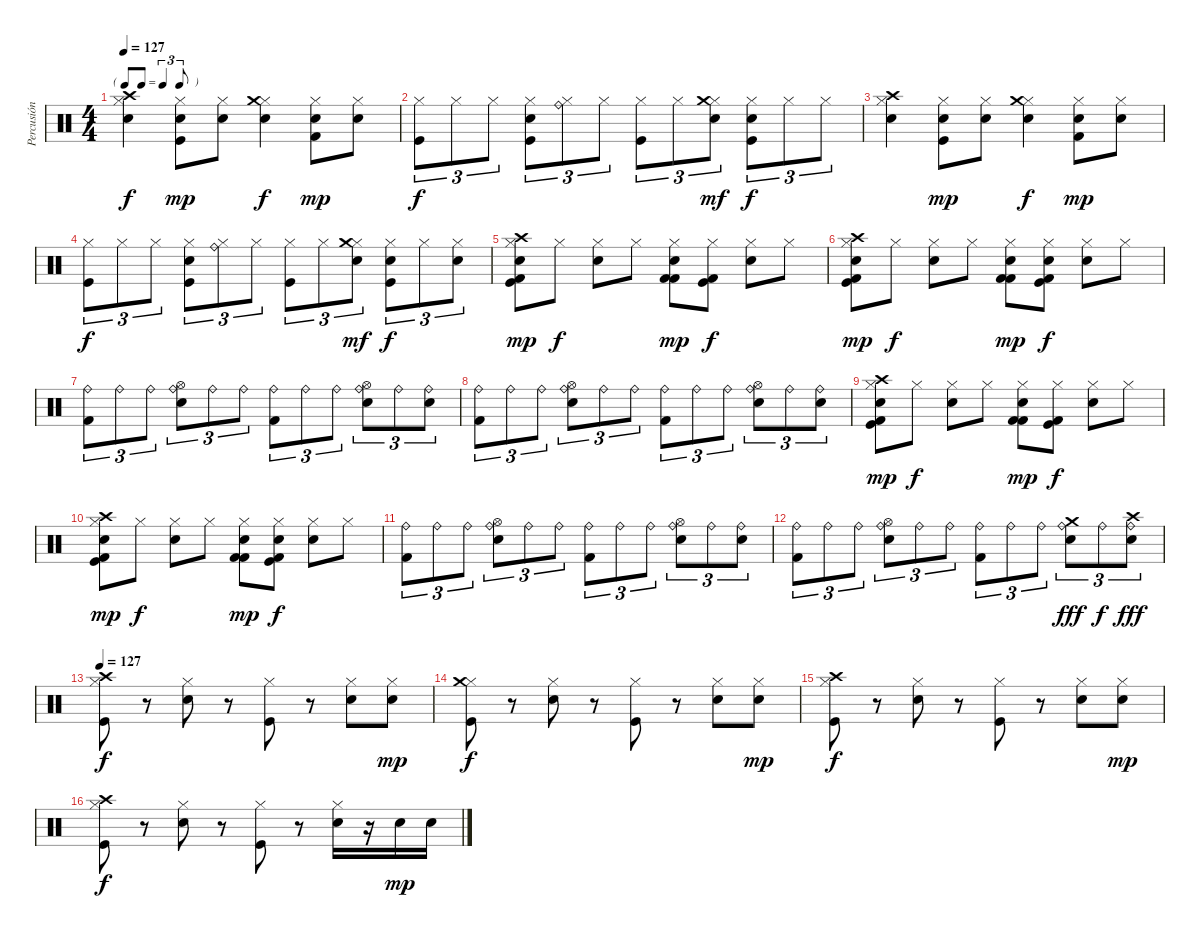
\track ("Percusión" "Percusión") {instrument percussion}
\staff {score}
\articulation defaults
\ts (4 4)
\tf triplet8th
\tempo 127
\clef neutral
\ks c
("Hi-Hat (closed)" "Crash high (hit)" "Snare (hit) 2").4{dy f} ("Hi-Hat (closed)" "Snare (hit) 2" "Kick (hit)").8{dy mp} ("Hi-Hat (closed)" "Snare (hit) 2").8 ("Hi-Hat (closed)" "Crash medium (hit)" "Snare (hit) 2").4{dy f} ("Hi-Hat (closed)" "Snare (hit) 2" "Kick (hit) 2").8{dy mp} ("Hi-Hat (closed)" "Snare (hit) 2").8 |
("Hi-Hat (closed)" "Kick (hit)").8{tu (3 2) dy f} "Hi-Hat (closed)".8{tu (3 2)} "Hi-Hat (closed)".8{tu (3 2)} ("Hi-Hat (closed)" "Snare (hit) 2" "Kick (hit)").8{tu (3 2)} ("Hi-Hat (closed)" "Ride (bell)").8{tu (3 2)} "Hi-Hat (closed)".8{tu (3 2)} ("Hi-Hat (closed)" "Kick (hit)").8{tu (3 2)} "Hi-Hat (closed)".8{tu (3 2)} ("Hi-Hat (closed)" "Crash medium (hit)" "Snare (hit) 2").8{tu (3 2) dy mf} ("Hi-Hat (closed)" "Snare (hit) 2" "Kick (hit)").8{tu (3 2) dy f} "Hi-Hat (closed)".8{tu (3 2)} "Hi-Hat (closed)".8{tu (3 2)} |
("Hi-Hat (closed)" "Crash high (hit)" "Snare (hit) 2").4 ("Hi-Hat (closed)" "Snare (hit) 2" "Kick (hit)").8{dy mp} ("Hi-Hat (closed)" "Snare (hit) 2").8 ("Hi-Hat (closed)" "Crash medium (hit)" "Snare (hit) 2").4{dy f} ("Hi-Hat (closed)" "Snare (hit) 2" "Kick (hit) 2").8{dy mp} ("Hi-Hat (closed)" "Snare (hit) 2").8 |
("Hi-Hat (closed)" "Kick (hit)").8{tu (3 2) dy f} "Hi-Hat (closed)".8{tu (3 2)} "Hi-Hat (closed)".8{tu (3 2)} ("Hi-Hat (closed)" "Snare (hit) 2" "Kick (hit)").8{tu (3 2)} ("Hi-Hat (closed)" "Ride (bell)").8{tu (3 2)} "Hi-Hat (closed)".8{tu (3 2)} ("Hi-Hat (closed)" "Kick (hit)").8{tu (3 2)} "Hi-Hat (closed)".8{tu (3 2)} ("Hi-Hat (closed)" "Crash medium (hit)" "Snare (hit) 2").8{tu (3 2) dy mf} ("Hi-Hat (closed)" "Snare (hit) 2" "Kick (hit)").8{tu (3 2) dy f} "Hi-Hat (closed)".8{tu (3 2)} ("Hi-Hat (closed)" "Snare (hit) 2").8{tu (3 2)} |
("Hi-Hat (closed)" "Crash high (hit)" "Snare (hit) 2" "Kick (hit) 2" "Kick (hit)").8{dy mp} "Hi-Hat (closed)".8{dy f} ("Hi-Hat (closed)" "Snare (hit) 2").8 "Hi-Hat (closed)".8 ("Hi-Hat (closed)" "Snare (hit) 2" "Kick (hit) 2" "Kick (hit) 2").8{dy mp} ("Hi-Hat (closed)" "Kick (hit) 2" "Kick (hit)").8{dy f} ("Hi-Hat (closed)" "Snare (hit) 2").8 "Hi-Hat (closed)".8 |
("Hi-Hat (closed)" "Crash high (hit)" "Snare (hit) 2" "Kick (hit) 2" "Kick (hit)").8{dy mp} "Hi-Hat (closed)".8{dy f} ("Hi-Hat (closed)" "Snare (hit) 2").8 "Hi-Hat (closed)".8 ("Hi-Hat (closed)" "Snare (hit) 2" "Kick (hit) 2" "Kick (hit) 2").8{dy mp} ("Hi-Hat (closed)" "Snare (hit) 2" "Kick (hit) 2" "Kick (hit)").8{dy f} ("Hi-Hat (closed)" "Snare (hit) 2").8 "Hi-Hat (closed)".8 |
("Ride (bell)" "Kick (hit) 2").8{tu (3 2)} "Ride (bell)".8{tu (3 2)} "Ride (bell)".8{tu (3 2)} ("Ride (bell)" "Hi-Hat (open)" "Snare (hit) 2").8{tu (3 2)} "Ride (bell)".8{tu (3 2)} "Ride (bell)".8{tu (3 2)} ("Ride (bell)" "Kick (hit) 2").8{tu (3 2)} "Ride (bell)".8{tu (3 2)} "Ride (bell)".8{tu (3 2)} ("Ride (bell)" "Hi-Hat (open)" "Snare (hit) 2").8{tu (3 2)} "Ride (bell)".8{tu (3 2)} ("Ride (bell)" "Snare (hit) 2").8{tu (3 2)} |
("Ride (bell)" "Kick (hit) 2").8{tu (3 2)} "Ride (bell)".8{tu (3 2)} "Ride (bell)".8{tu (3 2)} ("Ride (bell)" "Hi-Hat (open)" "Snare (hit) 2").8{tu (3 2)} "Ride (bell)".8{tu (3 2)} "Ride (bell)".8{tu (3 2)} ("Ride (bell)" "Kick (hit) 2").8{tu (3 2)} "Ride (bell)".8{tu (3 2)} "Ride (bell)".8{tu (3 2)} ("Ride (bell)" "Hi-Hat (open)" "Snare (hit) 2").8{tu (3 2)} "Ride (bell)".8{tu (3 2)} ("Ride (bell)" "Snare (hit) 2").8{tu (3 2)} |
("Hi-Hat (closed)" "Crash high (hit)" "Snare (hit) 2" "Kick (hit) 2" "Kick (hit)").8{dy mp} "Hi-Hat (closed)".8{dy f} ("Hi-Hat (closed)" "Snare (hit) 2").8 "Hi-Hat (closed)".8 ("Hi-Hat (closed)" "Snare (hit) 2" "Kick (hit) 2" "Kick (hit) 2").8{dy mp} ("Hi-Hat (closed)" "Kick (hit) 2" "Kick (hit)").8{dy f} ("Hi-Hat (closed)" "Snare (hit) 2").8 "Hi-Hat (closed)".8 |
("Hi-Hat (closed)" "Crash high (hit)" "Snare (hit) 2" "Kick (hit) 2" "Kick (hit)").8{dy mp} "Hi-Hat (closed)".8{dy f} ("Hi-Hat (closed)" "Snare (hit) 2").8 "Hi-Hat (closed)".8 ("Hi-Hat (closed)" "Snare (hit) 2" "Kick (hit) 2" "Kick (hit) 2").8{dy mp} ("Hi-Hat (closed)" "Snare (hit) 2" "Kick (hit) 2" "Kick (hit)").8{dy f} ("Hi-Hat (closed)" "Snare (hit) 2").8 "Hi-Hat (closed)".8 |
("Ride (bell)" "Kick (hit) 2").8{tu (3 2)} "Ride (bell)".8{tu (3 2)} "Ride (bell)".8{tu (3 2)} ("Ride (bell)" "Hi-Hat (open)" "Snare (hit) 2").8{tu (3 2)} "Ride (bell)".8{tu (3 2)} "Ride (bell)".8{tu (3 2)} ("Ride (bell)" "Kick (hit) 2").8{tu (3 2)} "Ride (bell)".8{tu (3 2)} "Ride (bell)".8{tu (3 2)} ("Ride (bell)" "Hi-Hat (open)" "Snare (hit) 2").8{tu (3 2)} "Ride (bell)".8{tu (3 2)} ("Ride (bell)" "Snare (hit) 2").8{tu (3 2)} |
("Ride (bell)" "Kick (hit) 2").8{tu (3 2)} "Ride (bell)".8{tu (3 2)} "Ride (bell)".8{tu (3 2)} ("Ride (bell)" "Hi-Hat (open)" "Snare (hit) 2").8{tu (3 2)} "Ride (bell)".8{tu (3 2)} "Ride (bell)".8{tu (3 2)} ("Ride (bell)" "Kick (hit) 2").8{tu (3 2)} "Ride (bell)".8{tu (3 2)} "Ride (bell)".8{tu (3 2)} ("Ride (bell)" "Crash medium (hit)" "Snare (hit) 2").8{tu (3 2) dy fff} "Ride (bell)".8{tu (3 2) dy f} ("Ride (bell)" "Crash high (hit)" "Snare (hit) 2").8{tu (3 2) dy fff} |
\tempo 127
("Hi-Hat (closed)" "Crash high (hit)" "Kick (hit)").8{dy f} r.8 ("Hi-Hat (closed)" "Snare (hit) 2").8 r.8 ("Hi-Hat (closed)" "Kick (hit)").8 r.8 ("Hi-Hat (closed)" "Snare (hit) 2").8 ("Hi-Hat (closed)" "Snare (hit) 2").8{dy mp} |
("Hi-Hat (closed)" "Crash medium (hit)" "Kick (hit)").8{dy f} r.8 ("Hi-Hat (closed)" "Snare (hit) 2").8 r.8 ("Hi-Hat (closed)" "Kick (hit)").8 r.8 ("Hi-Hat (closed)" "Snare (hit) 2").8 ("Hi-Hat (closed)" "Snare (hit) 2").8{dy mp} |
("Hi-Hat (closed)" "Crash high (hit)" "Kick (hit)").8{dy f} r.8 ("Hi-Hat (closed)" "Snare (hit) 2").8 r.8 ("Hi-Hat (closed)" "Kick (hit)").8 r.8 ("Hi-Hat (closed)" "Snare (hit) 2").8 ("Hi-Hat (closed)" "Snare (hit) 2").8{dy mp} |
("Hi-Hat (closed)" "Crash high (hit)" "Kick (hit)").8{dy f} r.8 ("Hi-Hat (closed)" "Snare (hit) 2").8 r.8 ("Hi-Hat (closed)" "Kick (hit)").8 r.8 ("Hi-Hat (closed)" "Snare (hit) 2").16 r.16 "Snare (hit) 2".16{dy mp} "Snare (hit) 2".16
